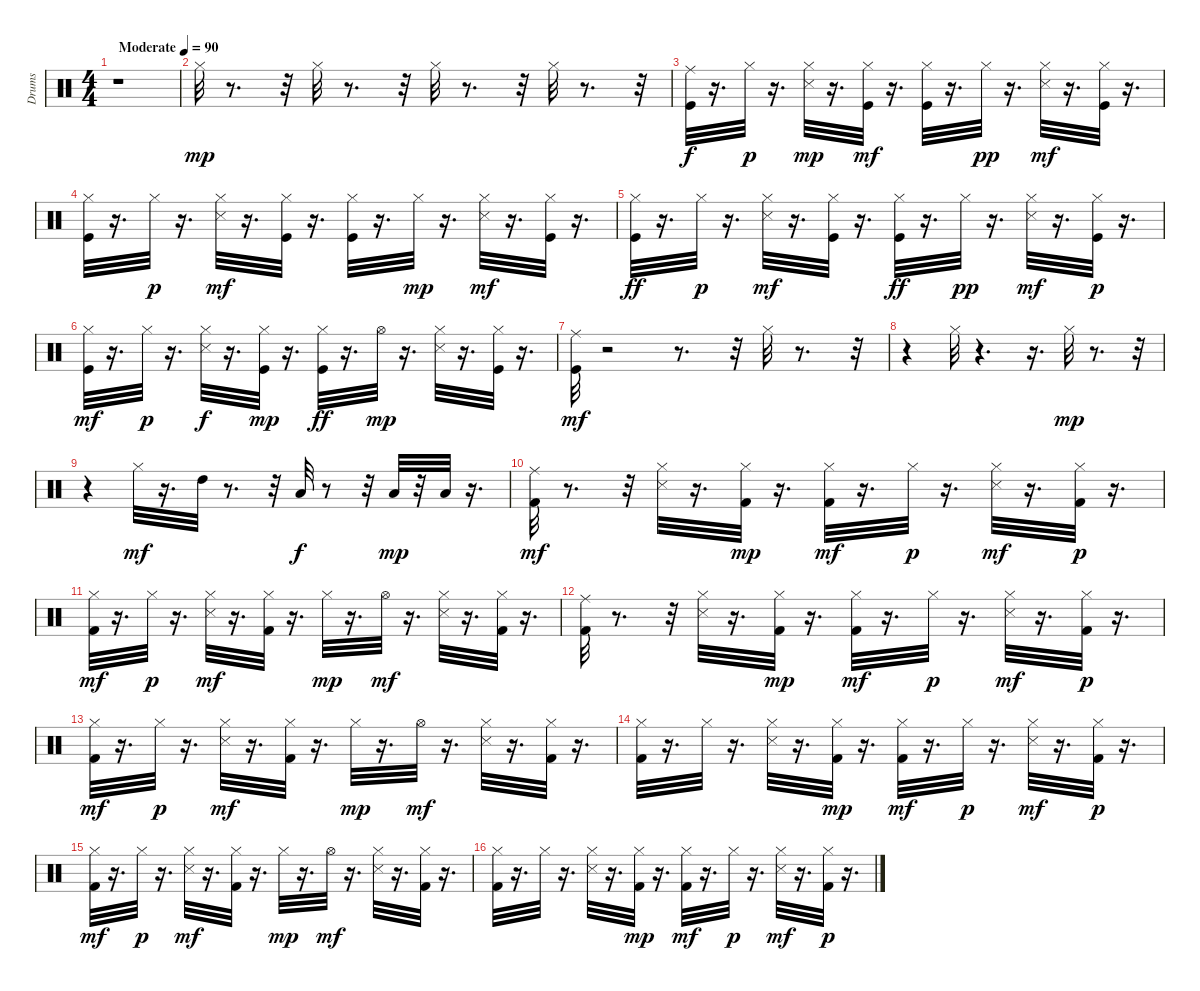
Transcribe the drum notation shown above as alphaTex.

\track ("Drums               " "Drums     ") {instrument percussion}
\staff {score}
\articulation defaults
\ts (4 4)
\tempo (90 "Moderate")
\clef neutral
\ks c
r.1{dy mp} |
"Hi-Hat (closed)".32 r.8{d} r.32 "Hi-Hat (closed)".32 r.8{d} r.32 "Hi-Hat (closed)".32 r.8{d} r.32 "Hi-Hat (closed)".32 r.8{d} r.32 |
("Ride (middle)" "Kick (hit)").32{dy f} r.16{d} "Hi-Hat (closed)".32{dy p} r.16{d} ("Snare (side stick) 3" "Hi-Hat (closed)").32{dy mp} r.16{d} ("Hi-Hat (closed)" "Kick (hit)").32{dy mf} r.16{d} ("Hi-Hat (closed)" "Kick (hit)").32 r.16{d} "Hi-Hat (closed)".32{dy pp} r.16{d} ("Hi-Hat (closed)" "Snare (side stick) 3").32{dy mf} r.16{d} ("Hi-Hat (closed)" "Kick (hit)").32 r.16{d} |
("Hi-Hat (closed)" "Kick (hit)").32 r.16{d} "Hi-Hat (closed)".32{dy p} r.16{d} ("Hi-Hat (closed)" "Snare (side stick) 3").32{dy mf} r.16{d} ("Hi-Hat (closed)" "Kick (hit)").32 r.16{d} ("Hi-Hat (closed)" "Kick (hit)").32 r.16{d} "Hi-Hat (closed)".32{dy mp} r.16{d} ("Hi-Hat (closed)" "Snare (side stick) 3").32{dy mf} r.16{d} ("Hi-Hat (closed)" "Kick (hit)").32 r.16{d} |
("Hi-Hat (closed)" "Kick (hit)").32{dy ff} r.16{d} "Hi-Hat (closed)".32{dy p} r.16{d} ("Hi-Hat (closed)" "Snare (side stick) 3").32{dy mf} r.16{d} ("Hi-Hat (closed)" "Kick (hit)").32 r.16{d} ("Hi-Hat (closed)" "Kick (hit)").32{dy ff} r.16{d} "Hi-Hat (closed)".32{dy pp} r.16{d} ("Hi-Hat (closed)" "Snare (side stick) 3").32{dy mf} r.16{d} ("Kick (hit)" "Hi-Hat (closed)").32{dy p} r.16{d} |
("Kick (hit)" "Hi-Hat (closed)").32{dy mf} r.16{d} "Hi-Hat (closed)".32{dy p} r.16{d} ("Hi-Hat (closed)" "Snare (side stick) 3").32{dy f} r.16{d} ("Hi-Hat (closed)" "Kick (hit)").32{dy mp} r.16{d} ("Hi-Hat (closed)" "Kick (hit)").32{dy ff} r.16{d} "Hi-Hat (open)".32{dy mp} r.16{d} ("Snare (side stick) 3" "Hi-Hat (closed)").32 r.16{d} ("Kick (hit)" "Hi-Hat (closed)").32 r.16{d} |
("Kick (hit)" "Ride (middle)").32{dy mf} r.2 r.8{d} r.32 "Hi-Hat (closed)".32 r.8{d} r.32 |
r.4 "Hi-Hat (closed)".32 r.4{d} r.16{d} "Hi-Hat (closed)".32{dy mp} r.8{d} r.32 |
r.4 "Hi-Hat (closed)".32{dy mf} r.16{d} "High Tom (hit)".32 r.8{d} r.32 "Low Tom (hit)".32{dy f} r.8 r.32 "Low Floor Tom (hit)".32{dy mp} r.32 "Low Floor Tom (hit)".32 r.16{d} |
("Ride (middle)" "Kick (hit) 2").32{dy mf} r.8{d} r.32 ("Snare (side stick) 3" "Hi-Hat (closed)").32 r.16{d} ("Hi-Hat (closed)" "Kick (hit) 2").32{dy mp} r.16{d} ("Kick (hit) 2" "Hi-Hat (closed)").32{dy mf} r.16{d} "Hi-Hat (closed)".32{dy p} r.16{d} ("Snare (side stick) 3" "Hi-Hat (closed)").32{dy mf} r.16{d} ("Kick (hit) 2" "Hi-Hat (closed)").32{dy p} r.16{d} |
("Kick (hit) 2" "Hi-Hat (closed)").32{dy mf} r.16{d} "Hi-Hat (closed)".32{dy p} r.16{d} ("Hi-Hat (closed)" "Snare (side stick) 3").32{dy mf} r.16{d} ("Hi-Hat (closed)" "Kick (hit) 2").32 r.16{d} "Hi-Hat (closed)".32{dy mp} r.16{d} "Hi-Hat (open)".32{dy mf} r.16{d} ("Hi-Hat (closed)" "Snare (side stick) 3").32 r.16{d} ("Hi-Hat (closed)" "Kick (hit) 2").32 r.16{d} |
("Ride (middle)" "Kick (hit) 2").32 r.8{d} r.32 ("Snare (side stick) 3" "Hi-Hat (closed)").32 r.16{d} ("Hi-Hat (closed)" "Kick (hit) 2").32{dy mp} r.16{d} ("Kick (hit) 2" "Hi-Hat (closed)").32{dy mf} r.16{d} "Hi-Hat (closed)".32{dy p} r.16{d} ("Snare (side stick) 3" "Hi-Hat (closed)").32{dy mf} r.16{d} ("Kick (hit) 2" "Hi-Hat (closed)").32{dy p} r.16{d} |
("Kick (hit) 2" "Hi-Hat (closed)").32{dy mf} r.16{d} "Hi-Hat (closed)".32{dy p} r.16{d} ("Hi-Hat (closed)" "Snare (side stick) 3").32{dy mf} r.16{d} ("Hi-Hat (closed)" "Kick (hit) 2").32 r.16{d} "Hi-Hat (closed)".32{dy mp} r.16{d} "Hi-Hat (open)".32{dy mf} r.16{d} ("Hi-Hat (closed)" "Snare (side stick) 3").32 r.16{d} ("Hi-Hat (closed)" "Kick (hit) 2").32 r.16{d} |
("Hi-Hat (closed)" "Kick (hit) 2").32 r.16{d} "Hi-Hat (closed)".32 r.16{d} ("Snare (side stick) 3" "Hi-Hat (closed)").32 r.16{d} ("Hi-Hat (closed)" "Kick (hit) 2").32{dy mp} r.16{d} ("Kick (hit) 2" "Hi-Hat (closed)").32{dy mf} r.16{d} "Hi-Hat (closed)".32{dy p} r.16{d} ("Snare (side stick) 3" "Hi-Hat (closed)").32{dy mf} r.16{d} ("Kick (hit) 2" "Hi-Hat (closed)").32{dy p} r.16{d} |
("Kick (hit) 2" "Hi-Hat (closed)").32{dy mf} r.16{d} "Hi-Hat (closed)".32{dy p} r.16{d} ("Hi-Hat (closed)" "Snare (side stick) 3").32{dy mf} r.16{d} ("Hi-Hat (closed)" "Kick (hit) 2").32 r.16{d} "Hi-Hat (closed)".32{dy mp} r.16{d} "Hi-Hat (open)".32{dy mf} r.16{d} ("Hi-Hat (closed)" "Snare (side stick) 3").32 r.16{d} ("Hi-Hat (closed)" "Kick (hit) 2").32 r.16{d} |
("Hi-Hat (closed)" "Kick (hit) 2").32 r.16{d} "Hi-Hat (closed)".32 r.16{d} ("Snare (side stick) 3" "Hi-Hat (closed)").32 r.16{d} ("Hi-Hat (closed)" "Kick (hit) 2").32{dy mp} r.16{d} ("Kick (hit) 2" "Hi-Hat (closed)").32{dy mf} r.16{d} "Hi-Hat (closed)".32{dy p} r.16{d} ("Snare (side stick) 3" "Hi-Hat (closed)").32{dy mf} r.16{d} ("Kick (hit) 2" "Hi-Hat (closed)").32{dy p} r.16{d}
